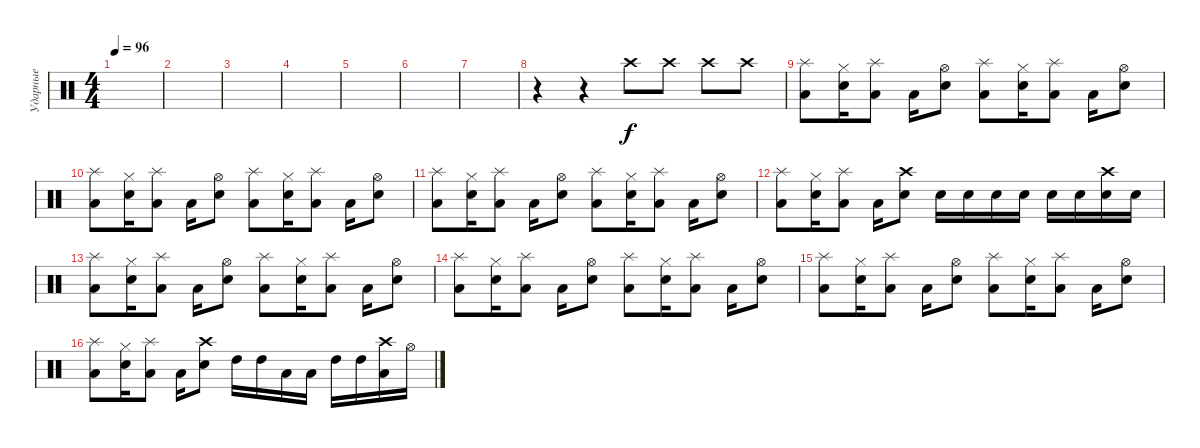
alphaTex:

\track ("Ударные" "Ударные") {instrument percussion}
\staff {score}
\articulation defaults
\ts (4 4)
\tempo 96
\clef neutral
\ks c
|
|
|
|
|
|
|
r.4 r.4 "Crash high (hit)".8{dy f} "Crash high (hit)".8 "Crash high (hit)".8 "Crash high (hit)".8 |
("Low Floor Tom (hit)" "Splash (hit)").8 ("Electric Snare (hit)" "Hi-Hat (closed)").16 ("Low Floor Tom (hit)" "Splash (hit)").8 "Low Floor Tom (hit)".16 ("Electric Snare (hit)" "Hi-Hat (open)").8 ("Low Floor Tom (hit)" "Splash (hit)").8 ("Electric Snare (hit)" "Hi-Hat (closed)").16 ("Low Floor Tom (hit)" "Splash (hit)").8 "Low Floor Tom (hit)".16 ("Electric Snare (hit)" "Hi-Hat (open)").8 |
("Low Floor Tom (hit)" "Splash (hit)").8 ("Electric Snare (hit)" "Hi-Hat (closed)").16 ("Low Floor Tom (hit)" "Splash (hit)").8 "Low Floor Tom (hit)".16 ("Electric Snare (hit)" "Hi-Hat (open)").8 ("Low Floor Tom (hit)" "Splash (hit)").8 ("Electric Snare (hit)" "Hi-Hat (closed)").16 ("Low Floor Tom (hit)" "Splash (hit)").8 "Low Floor Tom (hit)".16 ("Electric Snare (hit)" "Hi-Hat (open)").8 |
("Low Floor Tom (hit)" "Splash (hit)").8 ("Electric Snare (hit)" "Hi-Hat (closed)").16 ("Low Floor Tom (hit)" "Splash (hit)").8 "Low Floor Tom (hit)".16 ("Electric Snare (hit)" "Hi-Hat (open)").8 ("Low Floor Tom (hit)" "Splash (hit)").8 ("Electric Snare (hit)" "Hi-Hat (closed)").16 ("Low Floor Tom (hit)" "Splash (hit)").8 "Low Floor Tom (hit)".16 ("Electric Snare (hit)" "Hi-Hat (open)").8 |
("Low Floor Tom (hit)" "Splash (hit)").8 ("Electric Snare (hit)" "Hi-Hat (closed)").16 ("Low Floor Tom (hit)" "Splash (hit)").8 "Low Floor Tom (hit)".16 ("Electric Snare (hit)" "Crash high (hit)").8 "Electric Snare (hit)".16 "Electric Snare (hit)".16 "Electric Snare (hit)".16 "Electric Snare (hit)".16 "Electric Snare (hit)".16 "Electric Snare (hit)".16 ("Electric Snare (hit)" "Crash high (hit)").16 "Electric Snare (hit)".16 |
("Low Floor Tom (hit)" "Splash (hit)").8 ("Electric Snare (hit)" "Hi-Hat (closed)").16 ("Low Floor Tom (hit)" "Splash (hit)").8 "Low Floor Tom (hit)".16 ("Electric Snare (hit)" "Hi-Hat (open)").8 ("Low Floor Tom (hit)" "Splash (hit)").8 ("Electric Snare (hit)" "Hi-Hat (closed)").16 ("Low Floor Tom (hit)" "Splash (hit)").8 "Low Floor Tom (hit)".16 ("Electric Snare (hit)" "Hi-Hat (open)").8 |
("Low Floor Tom (hit)" "Splash (hit)").8 ("Electric Snare (hit)" "Hi-Hat (closed)").16 ("Low Floor Tom (hit)" "Splash (hit)").8 "Low Floor Tom (hit)".16 ("Electric Snare (hit)" "Hi-Hat (open)").8 ("Low Floor Tom (hit)" "Splash (hit)").8 ("Electric Snare (hit)" "Hi-Hat (closed)").16 ("Low Floor Tom (hit)" "Splash (hit)").8 "Low Floor Tom (hit)".16 ("Electric Snare (hit)" "Hi-Hat (open)").8 |
("Low Floor Tom (hit)" "Splash (hit)").8 ("Electric Snare (hit)" "Hi-Hat (closed)").16 ("Low Floor Tom (hit)" "Splash (hit)").8 "Low Floor Tom (hit)".16 ("Electric Snare (hit)" "Hi-Hat (open)").8 ("Low Floor Tom (hit)" "Splash (hit)").8 ("Electric Snare (hit)" "Hi-Hat (closed)").16 ("Low Floor Tom (hit)" "Splash (hit)").8 "Low Floor Tom (hit)".16 ("Electric Snare (hit)" "Hi-Hat (open)").8 |
("Low Floor Tom (hit)" "Splash (hit)").8 ("Electric Snare (hit)" "Hi-Hat (closed)").16 ("Low Floor Tom (hit)" "Splash (hit)").8 "Low Floor Tom (hit)".16 ("Electric Snare (hit)" "Crash high (hit)").8 "High Tom (hit)".16 "High Tom (hit)".16 "Low Tom (hit)".16 "Low Tom (hit)".16 "High Tom (hit)".16 "High Tom (hit)".16 ("Low Tom (hit)" "Crash high (hit)").16 "Hi-Hat (open)".16
